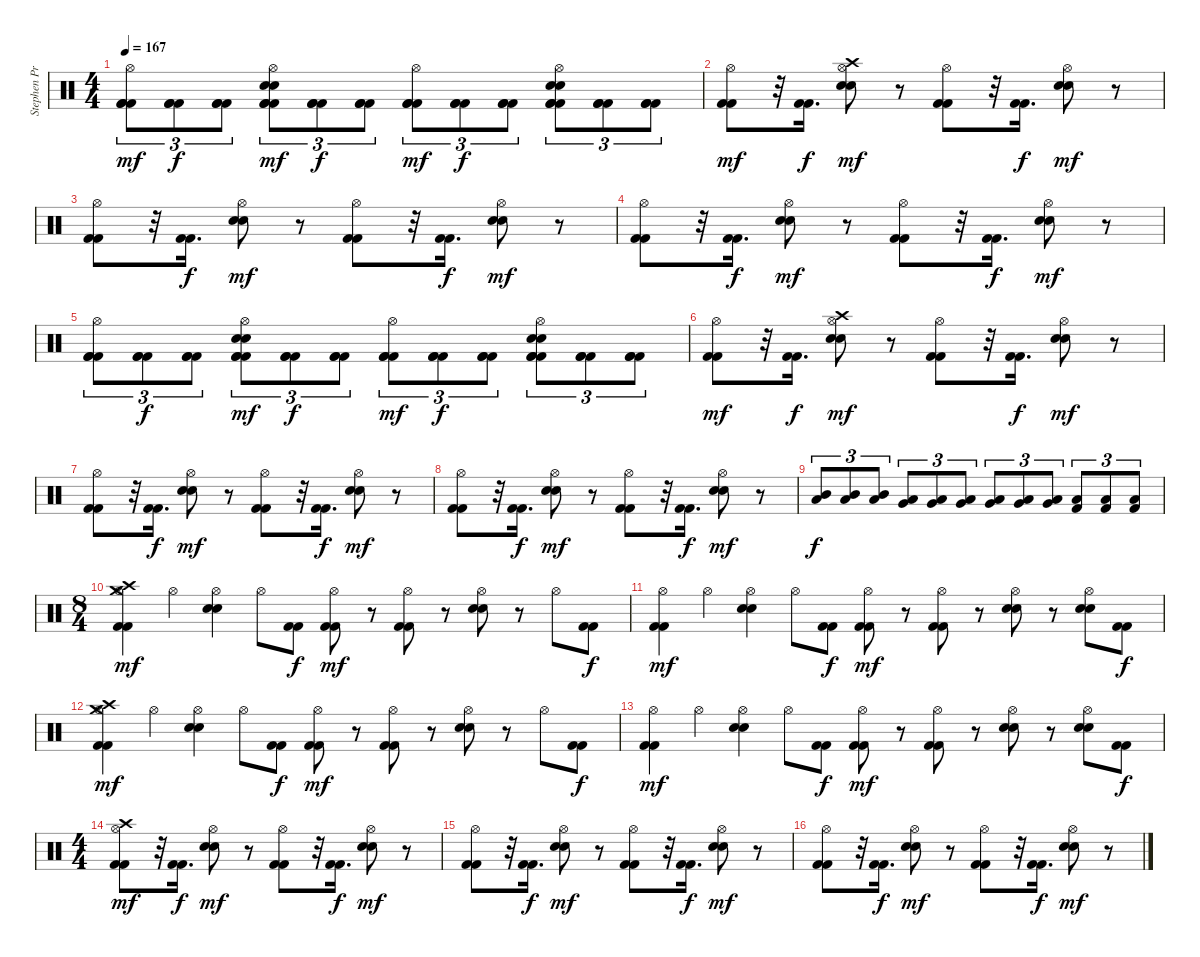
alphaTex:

\track ("Stephen Priestly  (Drums)" "Stephen Pr") {instrument percussion}
\staff {score}
\articulation defaults
\ts (4 4)
\tempo 167
\clef neutral
\ks c
("Hi-Hat (open)" "Kick (hit) 2" "Kick (hit) 2" "Kick (hit) 2").8{tu (3 2) dy mf} ("Kick (hit) 2" "Kick (hit) 2" "Kick (hit) 2").8{tu (3 2) dy f} ("Kick (hit) 2" "Kick (hit) 2" "Kick (hit) 2").8{tu (3 2)} ("Electric Snare (hit)" "Hi-Hat (open)" "Electric Snare (hit)" "Kick (hit) 2" "Kick (hit) 2" "Kick (hit) 2").8{tu (3 2) dy mf} ("Kick (hit) 2" "Kick (hit) 2" "Kick (hit) 2").8{tu (3 2) dy f} ("Kick (hit) 2" "Kick (hit) 2" "Kick (hit) 2").8{tu (3 2)} ("Hi-Hat (open)" "Kick (hit) 2" "Kick (hit) 2" "Kick (hit) 2").8{tu (3 2) dy mf} ("Kick (hit) 2" "Kick (hit) 2" "Kick (hit) 2").8{tu (3 2) dy f} ("Kick (hit) 2" "Kick (hit) 2" "Kick (hit) 2").8{tu (3 2)} ("Electric Snare (hit)" "Hi-Hat (open)" "Electric Snare (hit)" "Kick (hit) 2" "Kick (hit) 2" "Kick (hit) 2").8{tu (3 2)} ("Kick (hit) 2" "Kick (hit) 2" "Kick (hit) 2").8{tu (3 2)} ("Kick (hit) 2" "Kick (hit) 2" "Kick (hit) 2").8{tu (3 2)} |
("Hi-Hat (open)" "Kick (hit) 2" "Kick (hit) 2").8{dy mf} r.32 ("Kick (hit) 2" "Kick (hit) 2").16{d dy f} ("Crash high (hit)" "Hi-Hat (open)" "Electric Snare (hit)" "Electric Snare (hit)").8{dy mf} r.8 ("Hi-Hat (open)" "Kick (hit) 2" "Kick (hit) 2").8 r.32 ("Kick (hit) 2" "Kick (hit) 2").16{d dy f} ("Hi-Hat (open)" "Electric Snare (hit)" "Electric Snare (hit)").8{dy mf} r.8 |
("Hi-Hat (open)" "Kick (hit) 2" "Kick (hit) 2").8 r.32 ("Kick (hit) 2" "Kick (hit) 2").16{d dy f} ("Hi-Hat (open)" "Electric Snare (hit)" "Electric Snare (hit)").8{dy mf} r.8 ("Hi-Hat (open)" "Kick (hit) 2" "Kick (hit) 2").8 r.32 ("Kick (hit) 2" "Kick (hit) 2").16{d dy f} ("Hi-Hat (open)" "Electric Snare (hit)" "Electric Snare (hit)").8{dy mf} r.8 |
("Hi-Hat (open)" "Kick (hit) 2" "Kick (hit) 2").8 r.32 ("Kick (hit) 2" "Kick (hit) 2").16{d dy f} ("Hi-Hat (open)" "Electric Snare (hit)" "Electric Snare (hit)").8{dy mf} r.8 ("Hi-Hat (open)" "Kick (hit) 2" "Kick (hit) 2").8 r.32 ("Kick (hit) 2" "Kick (hit) 2").16{d dy f} ("Hi-Hat (open)" "Electric Snare (hit)" "Electric Snare (hit)").8{dy mf} r.8 |
("Hi-Hat (open)" "Kick (hit) 2" "Kick (hit) 2" "Kick (hit) 2").8{tu (3 2)} ("Kick (hit) 2" "Kick (hit) 2" "Kick (hit) 2").8{tu (3 2) dy f} ("Kick (hit) 2" "Kick (hit) 2" "Kick (hit) 2").8{tu (3 2)} ("Electric Snare (hit)" "Hi-Hat (open)" "Electric Snare (hit)" "Kick (hit) 2" "Kick (hit) 2" "Kick (hit) 2").8{tu (3 2) dy mf} ("Kick (hit) 2" "Kick (hit) 2" "Kick (hit) 2").8{tu (3 2) dy f} ("Kick (hit) 2" "Kick (hit) 2" "Kick (hit) 2").8{tu (3 2)} ("Hi-Hat (open)" "Kick (hit) 2" "Kick (hit) 2" "Kick (hit) 2").8{tu (3 2) dy mf} ("Kick (hit) 2" "Kick (hit) 2" "Kick (hit) 2").8{tu (3 2) dy f} ("Kick (hit) 2" "Kick (hit) 2" "Kick (hit) 2").8{tu (3 2)} ("Electric Snare (hit)" "Hi-Hat (open)" "Electric Snare (hit)" "Kick (hit) 2" "Kick (hit) 2" "Kick (hit) 2").8{tu (3 2)} ("Kick (hit) 2" "Kick (hit) 2" "Kick (hit) 2").8{tu (3 2)} ("Kick (hit) 2" "Kick (hit) 2" "Kick (hit) 2").8{tu (3 2)} |
("Hi-Hat (open)" "Kick (hit) 2" "Kick (hit) 2").8{dy mf} r.32 ("Kick (hit) 2" "Kick (hit) 2").16{d dy f} ("Crash high (hit)" "Hi-Hat (open)" "Electric Snare (hit)" "Electric Snare (hit)").8{dy mf} r.8 ("Hi-Hat (open)" "Kick (hit) 2" "Kick (hit) 2").8 r.32 ("Kick (hit) 2" "Kick (hit) 2").16{d dy f} ("Hi-Hat (open)" "Electric Snare (hit)" "Electric Snare (hit)").8{dy mf} r.8 |
("Hi-Hat (open)" "Kick (hit) 2" "Kick (hit) 2").8 r.32 ("Kick (hit) 2" "Kick (hit) 2").16{d dy f} ("Hi-Hat (open)" "Electric Snare (hit)" "Electric Snare (hit)").8{dy mf} r.8 ("Hi-Hat (open)" "Kick (hit) 2" "Kick (hit) 2").8 r.32 ("Kick (hit) 2" "Kick (hit) 2").16{d dy f} ("Hi-Hat (open)" "Electric Snare (hit)" "Electric Snare (hit)").8{dy mf} r.8 |
("Hi-Hat (open)" "Kick (hit) 2" "Kick (hit) 2").8 r.32 ("Kick (hit) 2" "Kick (hit) 2").16{d dy f} ("Hi-Hat (open)" "Electric Snare (hit)" "Electric Snare (hit)").8{dy mf} r.8 ("Hi-Hat (open)" "Kick (hit) 2" "Kick (hit) 2").8 r.32 ("Kick (hit) 2" "Kick (hit) 2").16{d dy f} ("Hi-Hat (open)" "Electric Snare (hit)" "Electric Snare (hit)").8{dy mf} r.8 |
("Mid Tom (hit)" "Low Tom (hit)").8{tu (3 2) dy f} ("Mid Tom (hit)" "Low Tom (hit)").8{tu (3 2)} ("Mid Tom (hit)" "Low Tom (hit)").8{tu (3 2)} ("Low Tom (hit)" "Very Low Tom (hit)").8{tu (3 2)} ("Low Tom (hit)" "Very Low Tom (hit)").8{tu (3 2)} ("Low Tom (hit)" "Very Low Tom (hit)").8{tu (3 2)} ("Very Low Tom (hit)" "Low Floor Tom (hit)").8{tu (3 2)} ("Very Low Tom (hit)" "Low Floor Tom (hit)").8{tu (3 2)} ("Very Low Tom (hit)" "Low Floor Tom (hit)").8{tu (3 2)} ("Low Floor Tom (hit)" "Kick (hit) 2").8{tu (3 2)} ("Low Floor Tom (hit)" "Kick (hit) 2").8{tu (3 2)} ("Low Floor Tom (hit)" "Kick (hit) 2").8{tu (3 2)} |
\ts (8 4)
("Crash high (hit)" "Crash medium (hit)" "Hi-Hat (open)" "Kick (hit) 2" "Kick (hit) 2").4{dy mf} "Hi-Hat (open)".4 ("Hi-Hat (open)" "Electric Snare (hit)" "Electric Snare (hit)").4 "Hi-Hat (open)".8 ("Kick (hit) 2" "Kick (hit) 2").8{dy f} ("Hi-Hat (open)" "Kick (hit) 2" "Kick (hit) 2").8{dy mf} r.8 ("Hi-Hat (open)" "Kick (hit) 2" "Kick (hit) 2").8 r.8 ("Hi-Hat (open)" "Electric Snare (hit)" "Electric Snare (hit)").8 r.8 "Hi-Hat (open)".8 ("Kick (hit) 2" "Kick (hit) 2").8{dy f} |
("Hi-Hat (open)" "Kick (hit) 2" "Kick (hit) 2").4{dy mf} "Hi-Hat (open)".4 ("Hi-Hat (open)" "Electric Snare (hit)" "Electric Snare (hit)").4 "Hi-Hat (open)".8 ("Kick (hit) 2" "Kick (hit) 2").8{dy f} ("Hi-Hat (open)" "Kick (hit) 2" "Kick (hit) 2").8{dy mf} r.8 ("Hi-Hat (open)" "Kick (hit) 2" "Kick (hit) 2").8 r.8 ("Hi-Hat (open)" "Electric Snare (hit)" "Electric Snare (hit)").8 r.8 ("Hi-Hat (open)" "Electric Snare (hit)" "Electric Snare (hit)").8 ("Kick (hit) 2" "Kick (hit) 2").8{dy f} |
("Crash high (hit)" "Crash medium (hit)" "Hi-Hat (open)" "Kick (hit) 2" "Kick (hit) 2").4{dy mf} "Hi-Hat (open)".4 ("Hi-Hat (open)" "Electric Snare (hit)" "Electric Snare (hit)").4 "Hi-Hat (open)".8 ("Kick (hit) 2" "Kick (hit) 2").8{dy f} ("Hi-Hat (open)" "Kick (hit) 2" "Kick (hit) 2").8{dy mf} r.8 ("Hi-Hat (open)" "Kick (hit) 2" "Kick (hit) 2").8 r.8 ("Hi-Hat (open)" "Electric Snare (hit)" "Electric Snare (hit)").8 r.8 "Hi-Hat (open)".8 ("Kick (hit) 2" "Kick (hit) 2").8{dy f} |
("Hi-Hat (open)" "Kick (hit) 2" "Kick (hit) 2").4{dy mf} "Hi-Hat (open)".4 ("Hi-Hat (open)" "Electric Snare (hit)" "Electric Snare (hit)").4 "Hi-Hat (open)".8 ("Kick (hit) 2" "Kick (hit) 2").8{dy f} ("Hi-Hat (open)" "Kick (hit) 2" "Kick (hit) 2").8{dy mf} r.8 ("Hi-Hat (open)" "Kick (hit) 2" "Kick (hit) 2").8 r.8 ("Hi-Hat (open)" "Electric Snare (hit)" "Electric Snare (hit)").8 r.8 ("Hi-Hat (open)" "Electric Snare (hit)" "Electric Snare (hit)").8 ("Kick (hit) 2" "Kick (hit) 2").8{dy f} |
\ts (4 4)
("Crash high (hit)" "Hi-Hat (open)" "Kick (hit) 2" "Kick (hit) 2").8{dy mf} r.32 ("Kick (hit) 2" "Kick (hit) 2").16{d dy f} ("Hi-Hat (open)" "Electric Snare (hit)" "Electric Snare (hit)").8{dy mf} r.8 ("Hi-Hat (open)" "Kick (hit) 2" "Kick (hit) 2").8 r.32 ("Kick (hit) 2" "Kick (hit) 2").16{d dy f} ("Hi-Hat (open)" "Electric Snare (hit)" "Electric Snare (hit)").8{dy mf} r.8 |
("Hi-Hat (open)" "Kick (hit) 2" "Kick (hit) 2").8 r.32 ("Kick (hit) 2" "Kick (hit) 2").16{d dy f} ("Hi-Hat (open)" "Electric Snare (hit)" "Electric Snare (hit)").8{dy mf} r.8 ("Hi-Hat (open)" "Kick (hit) 2" "Kick (hit) 2").8 r.32 ("Kick (hit) 2" "Kick (hit) 2").16{d dy f} ("Hi-Hat (open)" "Electric Snare (hit)" "Electric Snare (hit)").8{dy mf} r.8 |
("Hi-Hat (open)" "Kick (hit) 2" "Kick (hit) 2").8 r.32 ("Kick (hit) 2" "Kick (hit) 2").16{d dy f} ("Hi-Hat (open)" "Electric Snare (hit)" "Electric Snare (hit)").8{dy mf} r.8 ("Hi-Hat (open)" "Kick (hit) 2" "Kick (hit) 2").8 r.32 ("Kick (hit) 2" "Kick (hit) 2").16{d dy f} ("Hi-Hat (open)" "Electric Snare (hit)" "Electric Snare (hit)").8{dy mf} r.8
